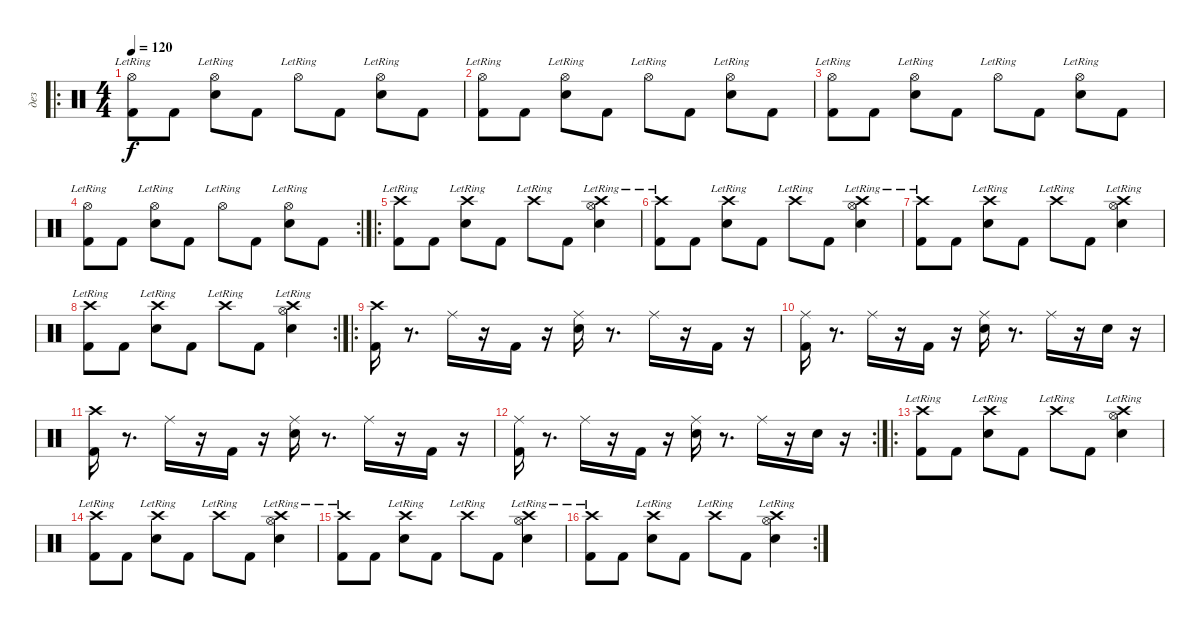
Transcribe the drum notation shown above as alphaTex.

\track ("дез" "дез") {instrument percussion}
\staff {score}
\articulation defaults
\ro
\ts (4 4)
\tempo 120
\clef neutral
\ks c
("Hi-Hat (open)"{lr} "Kick (hit) 2").8{dy f} "Kick (hit) 2".8 ("Hi-Hat (open)"{lr} "Snare (hit) 2").8 "Kick (hit) 2".8 "Hi-Hat (open)"{lr}.8 "Kick (hit) 2".8 ("Hi-Hat (open)"{lr} "Snare (hit) 2").8 "Kick (hit) 2".8 |
("Hi-Hat (open)"{lr} "Kick (hit) 2").8 "Kick (hit) 2".8 ("Hi-Hat (open)"{lr} "Snare (hit) 2").8 "Kick (hit) 2".8 "Hi-Hat (open)"{lr}.8 "Kick (hit) 2".8 ("Hi-Hat (open)"{lr} "Snare (hit) 2").8 "Kick (hit) 2".8 |
("Hi-Hat (open)"{lr} "Kick (hit) 2").8 "Kick (hit) 2".8 ("Hi-Hat (open)"{lr} "Snare (hit) 2").8 "Kick (hit) 2".8 "Hi-Hat (open)"{lr}.8 "Kick (hit) 2".8 ("Hi-Hat (open)"{lr} "Snare (hit) 2").8 "Kick (hit) 2".8 |
\rc 2
("Hi-Hat (open)"{lr} "Kick (hit) 2").8 "Kick (hit) 2".8 ("Hi-Hat (open)"{lr} "Snare (hit) 2").8 "Kick (hit) 2".8 "Hi-Hat (open)"{lr}.8 "Kick (hit) 2".8 ("Hi-Hat (open)"{lr} "Snare (hit) 2").8 "Kick (hit) 2".8 |
\ro
("Crash high (hit)"{lr} "Kick (hit) 2").8 "Kick (hit) 2".8 ("Crash high (hit)"{lr} "Snare (hit) 2").8 "Kick (hit) 2".8 "Crash high (hit)"{lr}.8 "Kick (hit) 2".8 ("Crash high (hit)"{lr} "Hi-Hat (open)"{lr} "Snare (hit) 2").4 |
("Crash high (hit)"{lr} "Kick (hit) 2").8 "Kick (hit) 2".8 ("Crash high (hit)"{lr} "Snare (hit) 2").8 "Kick (hit) 2".8 "Crash high (hit)"{lr}.8 "Kick (hit) 2".8 ("Crash high (hit)"{lr} "Hi-Hat (open)"{lr} "Snare (hit) 2").4 |
("Crash high (hit)"{lr} "Kick (hit) 2").8 "Kick (hit) 2".8 ("Crash high (hit)"{lr} "Snare (hit) 2").8 "Kick (hit) 2".8 "Crash high (hit)"{lr}.8 "Kick (hit) 2".8 ("Crash high (hit)"{lr} "Hi-Hat (open)"{lr} "Snare (hit) 2").4 |
\rc 2
("Crash high (hit)"{lr} "Kick (hit) 2").8 "Kick (hit) 2".8 ("Crash high (hit)"{lr} "Snare (hit) 2").8 "Kick (hit) 2".8 "Crash high (hit)"{lr}.8 "Kick (hit) 2".8 ("Crash high (hit)"{lr} "Hi-Hat (open)"{lr} "Snare (hit) 2").4 |
\ro
("Kick (hit) 2" "Crash high (hit)").16 r.8{d} "Ride (middle)".16 r.16 "Kick (hit) 2".16 r.16 ("Snare (hit) 2" "Ride (middle)").16 r.8{d} "Ride (middle)".16 r.16 "Kick (hit) 2".16 r.16 |
("Kick (hit) 2" "Ride (middle)").16 r.8{d} "Ride (middle)".16 r.16 "Kick (hit) 2".16 r.16 ("Snare (hit) 2" "Ride (middle)").16 r.8{d} "Ride (middle)".16 r.16 "Snare (hit) 2".16 r.16 |
("Kick (hit) 2" "Crash high (hit)").16 r.8{d} "Ride (middle)".16 r.16 "Kick (hit) 2".16 r.16 ("Snare (hit) 2" "Ride (middle)").16 r.8{d} "Ride (middle)".16 r.16 "Kick (hit) 2".16 r.16 |
\rc 2
("Kick (hit) 2" "Ride (middle)").16 r.8{d} "Ride (middle)".16 r.16 "Kick (hit) 2".16 r.16 ("Snare (hit) 2" "Ride (middle)").16 r.8{d} "Ride (middle)".16 r.16 "Snare (hit) 2".16 r.16 |
\ro
("Crash high (hit)"{lr} "Kick (hit) 2").8 "Kick (hit) 2".8 ("Crash high (hit)"{lr} "Snare (hit) 2").8 "Kick (hit) 2".8 "Crash high (hit)"{lr}.8 "Kick (hit) 2".8 ("Crash high (hit)"{lr} "Hi-Hat (open)"{lr} "Snare (hit) 2").4 |
("Crash high (hit)"{lr} "Kick (hit) 2").8 "Kick (hit) 2".8 ("Crash high (hit)"{lr} "Snare (hit) 2").8 "Kick (hit) 2".8 "Crash high (hit)"{lr}.8 "Kick (hit) 2".8 ("Crash high (hit)"{lr} "Hi-Hat (open)"{lr} "Snare (hit) 2").4 |
("Crash high (hit)"{lr} "Kick (hit) 2").8 "Kick (hit) 2".8 ("Crash high (hit)"{lr} "Snare (hit) 2").8 "Kick (hit) 2".8 "Crash high (hit)"{lr}.8 "Kick (hit) 2".8 ("Crash high (hit)"{lr} "Hi-Hat (open)"{lr} "Snare (hit) 2").4 |
\rc 2
("Crash high (hit)"{lr} "Kick (hit) 2").8 "Kick (hit) 2".8 ("Crash high (hit)"{lr} "Snare (hit) 2").8 "Kick (hit) 2".8 "Crash high (hit)"{lr}.8 "Kick (hit) 2".8 ("Crash high (hit)"{lr} "Hi-Hat (open)"{lr} "Snare (hit) 2").4
